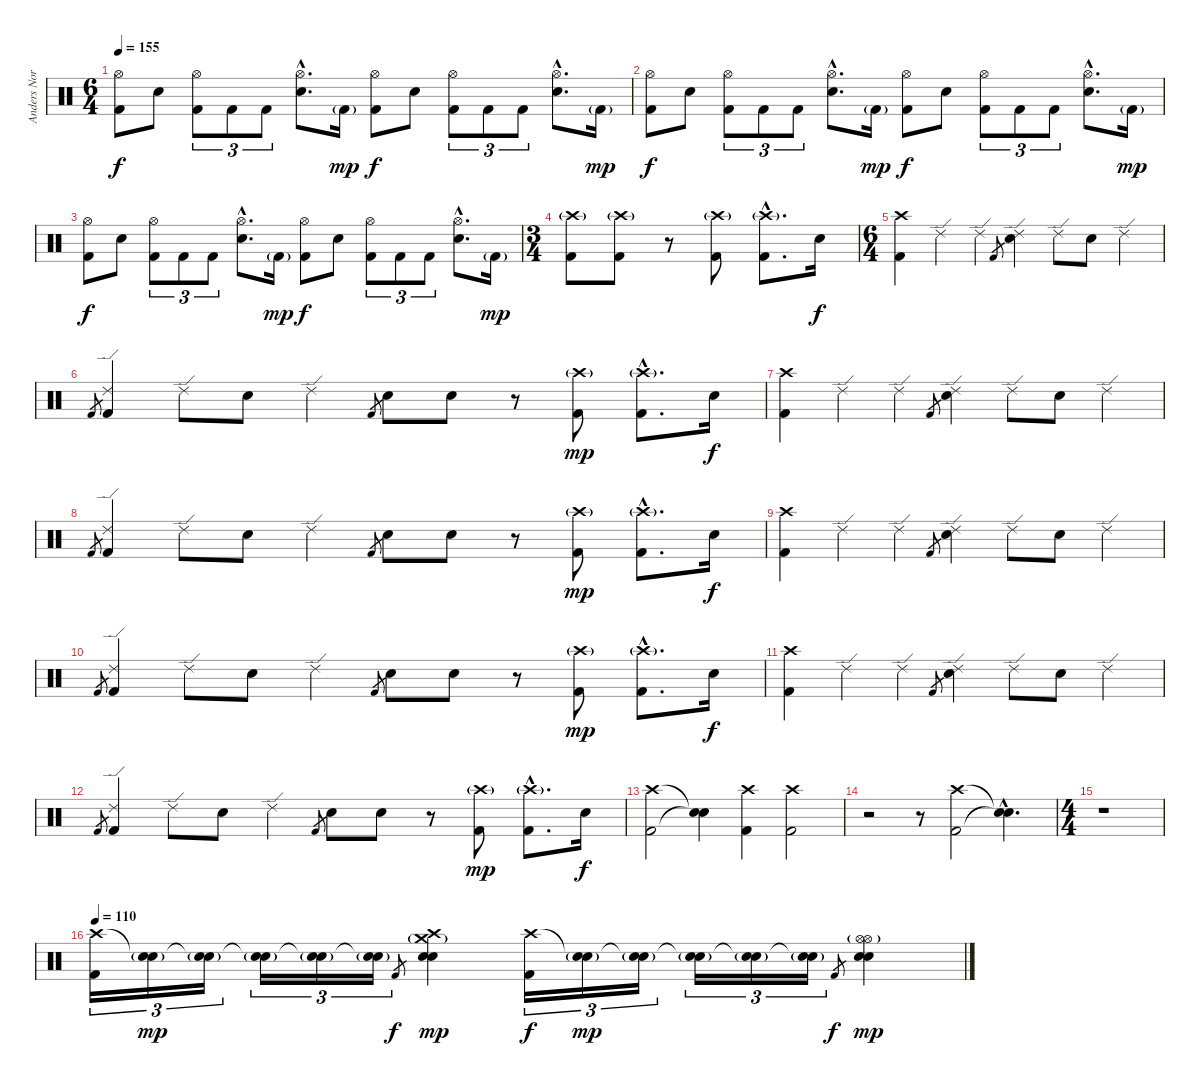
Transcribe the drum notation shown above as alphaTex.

\track ("Anders Nordin" "Anders Nor") {instrument percussion}
\staff {score}
\articulation defaults
\ts (6 4)
\tempo 155
\clef neutral
\ks c
("Kick (hit) 2" "Hi-Hat (open)").8{dy f} "Electric Snare (hit)".8 ("Kick (hit) 2" "Hi-Hat (open)").8{tu (3 2)} "Kick (hit) 2".8{tu (3 2)} "Kick (hit) 2".8{tu (3 2)} ("Electric Snare (hit)"{hac} "Hi-Hat (open)"{hac}).8{d} "Kick (hit) 2"{g}.16{dy mp} ("Kick (hit) 2" "Hi-Hat (open)").8{dy f} "Electric Snare (hit)".8 ("Kick (hit) 2" "Hi-Hat (open)").8{tu (3 2)} "Kick (hit) 2".8{tu (3 2)} "Kick (hit) 2".8{tu (3 2)} ("Electric Snare (hit)"{hac} "Hi-Hat (open)"{hac}).8{d} "Kick (hit) 2"{g}.16{dy mp} |
("Kick (hit) 2" "Hi-Hat (open)").8{dy f} "Electric Snare (hit)".8 ("Kick (hit) 2" "Hi-Hat (open)").8{tu (3 2)} "Kick (hit) 2".8{tu (3 2)} "Kick (hit) 2".8{tu (3 2)} ("Electric Snare (hit)"{hac} "Hi-Hat (open)"{hac}).8{d} "Kick (hit) 2"{g}.16{dy mp} ("Kick (hit) 2" "Hi-Hat (open)").8{dy f} "Electric Snare (hit)".8 ("Kick (hit) 2" "Hi-Hat (open)").8{tu (3 2)} "Kick (hit) 2".8{tu (3 2)} "Kick (hit) 2".8{tu (3 2)} ("Electric Snare (hit)"{hac} "Hi-Hat (open)"{hac}).8{d} "Kick (hit) 2"{g}.16{dy mp} |
("Kick (hit) 2" "Hi-Hat (open)").8{dy f} "Electric Snare (hit)".8 ("Kick (hit) 2" "Hi-Hat (open)").8{tu (3 2)} "Kick (hit) 2".8{tu (3 2)} "Kick (hit) 2".8{tu (3 2)} ("Electric Snare (hit)"{hac} "Hi-Hat (open)"{hac}).8{d} "Kick (hit) 2"{g}.16{dy mp} ("Kick (hit) 2" "Hi-Hat (open)").8{dy f} "Electric Snare (hit)".8 ("Kick (hit) 2" "Hi-Hat (open)").8{tu (3 2)} "Kick (hit) 2".8{tu (3 2)} "Kick (hit) 2".8{tu (3 2)} ("Electric Snare (hit)"{hac} "Hi-Hat (open)"{hac}).8{d} "Kick (hit) 2"{g}.16{dy mp} |
\ts (3 4)
("Kick (hit) 2" "Crash high (hit)"{g}).8 ("Kick (hit) 2" "Crash high (hit)"{g}).8 r.8 ("Kick (hit) 2" "Crash high (hit)"{g}).8 ("Kick (hit) 2"{hac} "Crash high (hit)"{g hac}).8{d} "Electric Snare (hit)".16{dy f} |
\ts (6 4)
("Kick (hit) 2" "Crash high (hit)").4 "Ride (edge) 2".4 "Ride (edge) 2".4 "Kick (hit) 2".8{gr} ("Electric Snare (hit)" "Ride (edge) 2").4 "Ride (edge) 2".8 "Electric Snare (hit)".8 "Ride (edge) 2".4 |
"Kick (hit) 2".8{gr} ("Kick (hit) 2" "Ride (edge) 2").4 "Ride (edge) 2".8 "Electric Snare (hit)".8 "Ride (edge) 2".4 "Kick (hit) 2".8{gr} "Electric Snare (hit)".8 "Electric Snare (hit)".8 r.8 ("Kick (hit) 2" "Crash high (hit)"{g}).8{dy mp} ("Kick (hit) 2"{hac} "Crash high (hit)"{g hac}).8{d} "Electric Snare (hit)".16{dy f} |
("Kick (hit) 2" "Crash high (hit)").4 "Ride (edge) 2".4 "Ride (edge) 2".4 "Kick (hit) 2".8{gr} ("Electric Snare (hit)" "Ride (edge) 2").4 "Ride (edge) 2".8 "Electric Snare (hit)".8 "Ride (edge) 2".4 |
"Kick (hit) 2".8{gr} ("Kick (hit) 2" "Ride (edge) 2").4 "Ride (edge) 2".8 "Electric Snare (hit)".8 "Ride (edge) 2".4 "Kick (hit) 2".8{gr} "Electric Snare (hit)".8 "Electric Snare (hit)".8 r.8 ("Kick (hit) 2" "Crash high (hit)"{g}).8{dy mp} ("Kick (hit) 2"{hac} "Crash high (hit)"{g hac}).8{d} "Electric Snare (hit)".16{dy f} |
("Kick (hit) 2" "Crash high (hit)").4 "Ride (edge) 2".4 "Ride (edge) 2".4 "Kick (hit) 2".8{gr} ("Electric Snare (hit)" "Ride (edge) 2").4 "Ride (edge) 2".8 "Electric Snare (hit)".8 "Ride (edge) 2".4 |
"Kick (hit) 2".8{gr} ("Kick (hit) 2" "Ride (edge) 2").4 "Ride (edge) 2".8 "Electric Snare (hit)".8 "Ride (edge) 2".4 "Kick (hit) 2".8{gr} "Electric Snare (hit)".8 "Electric Snare (hit)".8 r.8 ("Kick (hit) 2" "Crash high (hit)"{g}).8{dy mp} ("Kick (hit) 2"{hac} "Crash high (hit)"{g hac}).8{d} "Electric Snare (hit)".16{dy f} |
("Kick (hit) 2" "Crash high (hit)").4 "Ride (edge) 2".4 "Ride (edge) 2".4 "Kick (hit) 2".8{gr} ("Electric Snare (hit)" "Ride (edge) 2").4 "Ride (edge) 2".8 "Electric Snare (hit)".8 "Ride (edge) 2".4 |
"Kick (hit) 2".8{gr} ("Kick (hit) 2" "Ride (edge) 2").4 "Ride (edge) 2".8 "Electric Snare (hit)".8 "Ride (edge) 2".4 "Kick (hit) 2".8{gr} "Electric Snare (hit)".8 "Electric Snare (hit)".8 r.8 ("Kick (hit) 2" "Crash high (hit)"{g}).8{dy mp} ("Kick (hit) 2"{hac} "Crash high (hit)"{g hac}).8{d} "Electric Snare (hit)".16{dy f} |
("Kick (hit) 2" "Crash high (hit)").2 ("Snare (hit)"{t} "Snare (hit)"{t}).4 ("Kick (hit) 2" "Crash high (hit)").4 ("Kick (hit) 2" "Crash high (hit)").2 |
r.2 r.8 ("Kick (hit) 2" "Crash high (hit)").2 ("Snare (hit)"{hac t} "Snare (hit)"{hac t}).4{d} |
\ts (4 4)
r.1 |
\tempo 110
("Kick (hit) 2" "Crash high (hit)").16{tu (3 2)} ("Electric Snare (hit)"{g} "Snare (hit)"{t}).16{tu (3 2) dy mp} ("Electric Snare (hit)"{g} "Snare (hit)"{t}).16{tu (3 2)} ("Electric Snare (hit)"{g} "Snare (hit)"{t}).16{tu (3 2)} ("Electric Snare (hit)"{g} "Snare (hit)"{t}).16{tu (3 2)} ("Electric Snare (hit)"{g} "Snare (hit)"{t}).16{tu (3 2)} "Kick (hit) 2".8{gr dy f} ("Electric Snare (hit)" "Electric Snare (hit)" "Crash high (hit)" "Crash medium (hit)"{g}).4{dy mp} ("Kick (hit) 2" "Crash high (hit)").16{tu (3 2) dy f} ("Electric Snare (hit)"{g} "Snare (hit)"{t}).16{tu (3 2) dy mp} ("Electric Snare (hit)"{g} "Snare (hit)"{t}).16{tu (3 2)} ("Electric Snare (hit)"{g} "Snare (hit)"{t}).16{tu (3 2)} ("Electric Snare (hit)"{g} "Snare (hit)"{t}).16{tu (3 2)} ("Electric Snare (hit)"{g} "Snare (hit)"{t}).16{tu (3 2)} "Kick (hit) 2".8{gr dy f} ("Electric Snare (hit)" "Electric Snare (hit)" "Hi-Hat (open)" "Hi-Hat (open)"{g}).4{dy mp}
